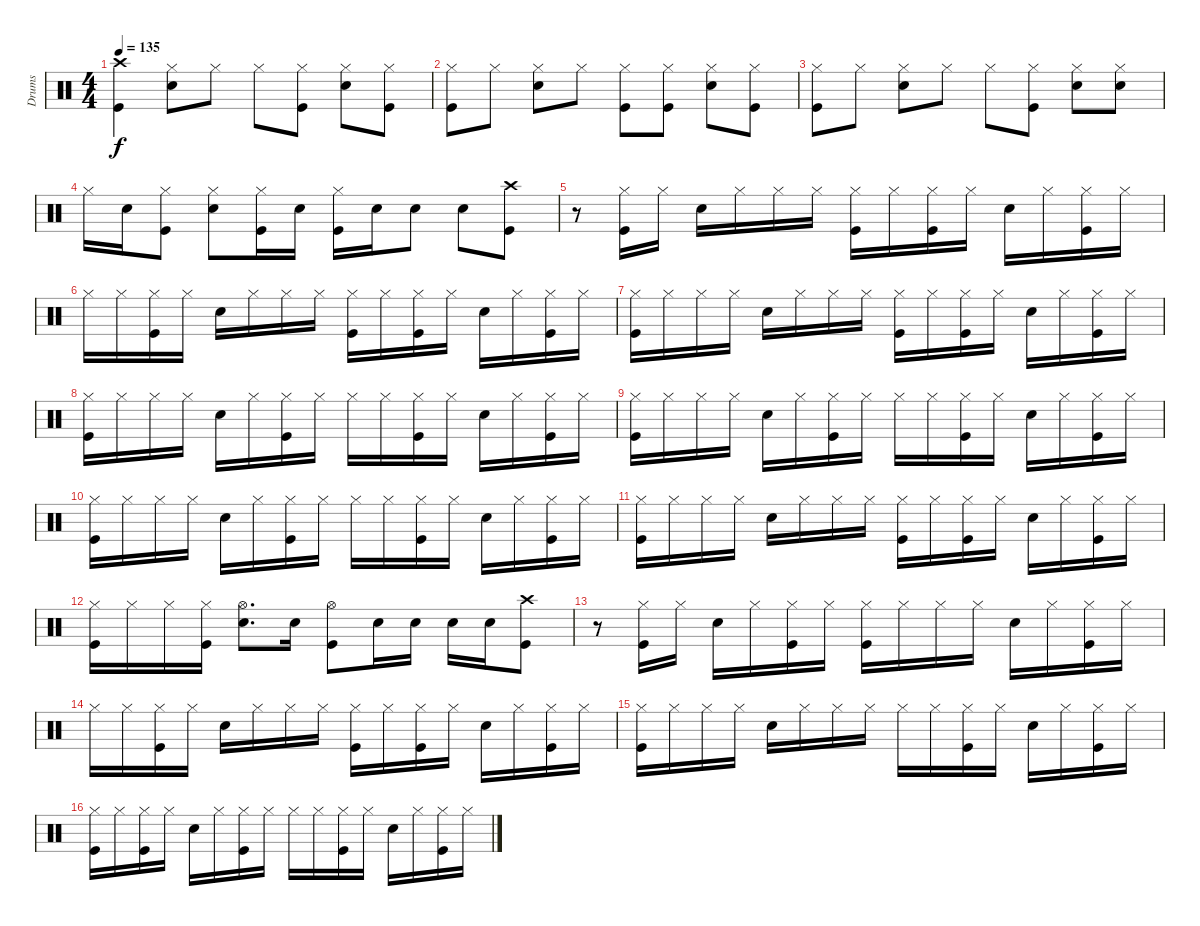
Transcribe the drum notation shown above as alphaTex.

\track ("Drums" "Drums") {instrument percussion}
\staff {score}
\articulation defaults
\ts (4 4)
\tempo 135
\clef neutral
\ks c
("Kick (hit)" "Crash high (hit)").4{dy f} ("Electric Snare (hit)" "Hi-Hat (closed)").8 "Hi-Hat (closed)".8 "Hi-Hat (closed)".8 ("Kick (hit)" "Hi-Hat (closed)").8 ("Electric Snare (hit)" "Hi-Hat (closed)").8 ("Kick (hit)" "Hi-Hat (closed)").8 |
("Kick (hit)" "Hi-Hat (closed)").8 "Hi-Hat (closed)".8 ("Electric Snare (hit)" "Hi-Hat (closed)").8 "Hi-Hat (closed)".8 ("Kick (hit)" "Hi-Hat (closed)").8 ("Kick (hit)" "Hi-Hat (closed)").8 ("Electric Snare (hit)" "Hi-Hat (closed)").8 ("Kick (hit)" "Hi-Hat (closed)").8 |
("Kick (hit)" "Hi-Hat (closed)").8 "Hi-Hat (closed)".8 ("Electric Snare (hit)" "Hi-Hat (closed)").8 "Hi-Hat (closed)".8 "Hi-Hat (closed)".8 ("Kick (hit)" "Hi-Hat (closed)").8 ("Electric Snare (hit)" "Hi-Hat (closed)").8 ("Electric Snare (hit)" "Hi-Hat (closed)").8 |
"Hi-Hat (closed)".16 "Electric Snare (hit)".16 ("Kick (hit)" "Hi-Hat (closed)").8 ("Electric Snare (hit)" "Hi-Hat (closed)").8 ("Kick (hit)" "Hi-Hat (closed)").16 "Electric Snare (hit)".16 ("Kick (hit)" "Hi-Hat (closed)").16 "Electric Snare (hit)".16 "Electric Snare (hit)".8 "Electric Snare (hit)".8 ("Kick (hit)" "Crash high (hit)").8 |
r.8 ("Kick (hit)" "Hi-Hat (closed)").16 "Hi-Hat (closed)".16 "Electric Snare (hit)".16 "Hi-Hat (closed)".16 "Hi-Hat (closed)".16 "Hi-Hat (closed)".16 ("Kick (hit)" "Hi-Hat (closed)").16 "Hi-Hat (closed)".16 ("Kick (hit)" "Hi-Hat (closed)").16 "Hi-Hat (closed)".16 "Electric Snare (hit)".16 "Hi-Hat (closed)".16 ("Kick (hit)" "Hi-Hat (closed)").16 "Hi-Hat (closed)".16 |
"Hi-Hat (closed)".16 "Hi-Hat (closed)".16 ("Kick (hit)" "Hi-Hat (closed)").16 "Hi-Hat (closed)".16 "Electric Snare (hit)".16 "Hi-Hat (closed)".16 "Hi-Hat (closed)".16 "Hi-Hat (closed)".16 ("Kick (hit)" "Hi-Hat (closed)").16 "Hi-Hat (closed)".16 ("Kick (hit)" "Hi-Hat (closed)").16 "Hi-Hat (closed)".16 "Electric Snare (hit)".16 "Hi-Hat (closed)".16 ("Kick (hit)" "Hi-Hat (closed)").16 "Hi-Hat (closed)".16 |
("Hi-Hat (closed)" "Kick (hit)").16 "Hi-Hat (closed)".16 "Hi-Hat (closed)".16 "Hi-Hat (closed)".16 "Electric Snare (hit)".16 "Hi-Hat (closed)".16 "Hi-Hat (closed)".16 "Hi-Hat (closed)".16 ("Kick (hit)" "Hi-Hat (closed)").16 "Hi-Hat (closed)".16 ("Kick (hit)" "Hi-Hat (closed)").16 "Hi-Hat (closed)".16 "Electric Snare (hit)".16 "Hi-Hat (closed)".16 ("Kick (hit)" "Hi-Hat (closed)").16 "Hi-Hat (closed)".16 |
("Kick (hit)" "Hi-Hat (closed)").16 "Hi-Hat (closed)".16 "Hi-Hat (closed)".16 "Hi-Hat (closed)".16 "Electric Snare (hit)".16 "Hi-Hat (closed)".16 ("Kick (hit)" "Hi-Hat (closed)").16 "Hi-Hat (closed)".16 "Hi-Hat (closed)".16 "Hi-Hat (closed)".16 ("Kick (hit)" "Hi-Hat (closed)").16 "Hi-Hat (closed)".16 "Electric Snare (hit)".16 "Hi-Hat (closed)".16 ("Kick (hit)" "Hi-Hat (closed)").16 "Hi-Hat (closed)".16 |
("Kick (hit)" "Hi-Hat (closed)").16 "Hi-Hat (closed)".16 "Hi-Hat (closed)".16 "Hi-Hat (closed)".16 "Electric Snare (hit)".16 "Hi-Hat (closed)".16 ("Kick (hit)" "Hi-Hat (closed)").16 "Hi-Hat (closed)".16 "Hi-Hat (closed)".16 "Hi-Hat (closed)".16 ("Kick (hit)" "Hi-Hat (closed)").16 "Hi-Hat (closed)".16 "Electric Snare (hit)".16 "Hi-Hat (closed)".16 ("Kick (hit)" "Hi-Hat (closed)").16 "Hi-Hat (closed)".16 |
("Kick (hit)" "Hi-Hat (closed)").16 "Hi-Hat (closed)".16 "Hi-Hat (closed)".16 "Hi-Hat (closed)".16 "Electric Snare (hit)".16 "Hi-Hat (closed)".16 ("Kick (hit)" "Hi-Hat (closed)").16 "Hi-Hat (closed)".16 "Hi-Hat (closed)".16 "Hi-Hat (closed)".16 ("Kick (hit)" "Hi-Hat (closed)").16 "Hi-Hat (closed)".16 "Electric Snare (hit)".16 "Hi-Hat (closed)".16 ("Kick (hit)" "Hi-Hat (closed)").16 "Hi-Hat (closed)".16 |
("Kick (hit)" "Hi-Hat (closed)").16 "Hi-Hat (closed)".16 "Hi-Hat (closed)".16 "Hi-Hat (closed)".16 "Electric Snare (hit)".16 "Hi-Hat (closed)".16 "Hi-Hat (closed)".16 "Hi-Hat (closed)".16 ("Kick (hit)" "Hi-Hat (closed)").16 "Hi-Hat (closed)".16 ("Kick (hit)" "Hi-Hat (closed)").16 "Hi-Hat (closed)".16 "Electric Snare (hit)".16 "Hi-Hat (closed)".16 ("Kick (hit)" "Hi-Hat (closed)").16 "Hi-Hat (closed)".16 |
("Kick (hit)" "Hi-Hat (closed)").16 "Hi-Hat (closed)".16 "Hi-Hat (closed)".16 ("Kick (hit)" "Hi-Hat (closed)").16 ("Electric Snare (hit)" "Hi-Hat (open)").8{d} "Electric Snare (hit)".16 ("Kick (hit)" "Hi-Hat (open)").8 "Electric Snare (hit)".16 "Electric Snare (hit)".16 "Electric Snare (hit)".16 "Electric Snare (hit)".16 ("Kick (hit)" "Crash high (hit)").8 |
r.8 ("Kick (hit)" "Hi-Hat (closed)").16 "Hi-Hat (closed)".16 "Electric Snare (hit)".16 "Hi-Hat (closed)".16 ("Kick (hit)" "Hi-Hat (closed)").16 "Hi-Hat (closed)".16 ("Kick (hit)" "Hi-Hat (closed)").16 "Hi-Hat (closed)".16 "Hi-Hat (closed)".16 "Hi-Hat (closed)".16 "Electric Snare (hit)".16 "Hi-Hat (closed)".16 ("Kick (hit)" "Hi-Hat (closed)").16 "Hi-Hat (closed)".16 |
"Hi-Hat (closed)".16 "Hi-Hat (closed)".16 ("Kick (hit)" "Hi-Hat (closed)").16 "Hi-Hat (closed)".16 "Electric Snare (hit)".16 "Hi-Hat (closed)".16 "Hi-Hat (closed)".16 "Hi-Hat (closed)".16 ("Kick (hit)" "Hi-Hat (closed)").16 "Hi-Hat (closed)".16 ("Kick (hit)" "Hi-Hat (closed)").16 "Hi-Hat (closed)".16 "Electric Snare (hit)".16 "Hi-Hat (closed)".16 ("Kick (hit)" "Hi-Hat (closed)").16 "Hi-Hat (closed)".16 |
("Kick (hit)" "Hi-Hat (closed)").16 "Hi-Hat (closed)".16 "Hi-Hat (closed)".16 "Hi-Hat (closed)".16 "Electric Snare (hit)".16 "Hi-Hat (closed)".16 "Hi-Hat (closed)".16 "Hi-Hat (closed)".16 "Hi-Hat (closed)".16 "Hi-Hat (closed)".16 ("Kick (hit)" "Hi-Hat (closed)").16 "Hi-Hat (closed)".16 "Electric Snare (hit)".16 "Hi-Hat (closed)".16 ("Kick (hit)" "Hi-Hat (closed)").16 "Hi-Hat (closed)".16 |
("Kick (hit)" "Hi-Hat (closed)").16 "Hi-Hat (closed)".16 ("Kick (hit)" "Hi-Hat (closed)").16 "Hi-Hat (closed)".16 "Electric Snare (hit)".16 "Hi-Hat (closed)".16 ("Kick (hit)" "Hi-Hat (closed)").16 "Hi-Hat (closed)".16 "Hi-Hat (closed)".16 "Hi-Hat (closed)".16 ("Kick (hit)" "Hi-Hat (closed)").16 "Hi-Hat (closed)".16 "Electric Snare (hit)".16 "Hi-Hat (closed)".16 ("Kick (hit)" "Hi-Hat (closed)").16 "Hi-Hat (closed)".16
